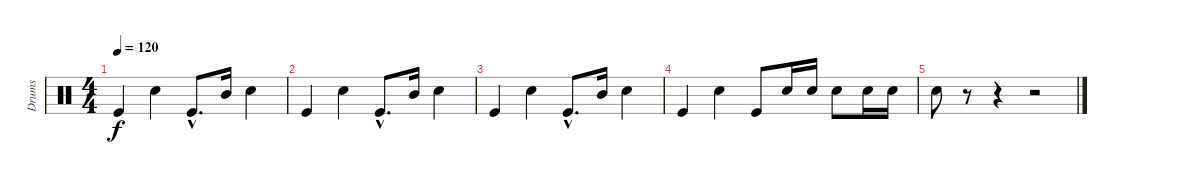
\track ("Drums" "Drums") {instrument percussion}
\staff {score}
\articulation defaults
\ts (4 4)
\tempo 120
\clef neutral
\ks c "Kick (hit)".4{dy f} "Snare (hit) 2".4 "Kick (hit)"{hac}.8{d} "Mid Tom (hit)".16 "Snare (hit) 2".4
|
"Kick (hit)".4 "Snare (hit) 2".4 "Kick (hit)"{hac}.8{d} "Mid Tom (hit)".16 "Snare (hit) 2".4 |
"Kick (hit)".4 "Snare (hit) 2".4 "Kick (hit)"{hac}.8{d} "Mid Tom (hit)".16 "Snare (hit) 2".4 |
"Kick (hit)".4 "Snare (hit) 2".4 "Kick (hit)".8 "Snare (hit) 2".16 "Snare (hit) 2".16 "Snare (hit) 2".8 "Snare (hit) 2".16 "Snare (hit) 2".16 |
"Snare (hit) 2".8 r.8 r.4 r.2
